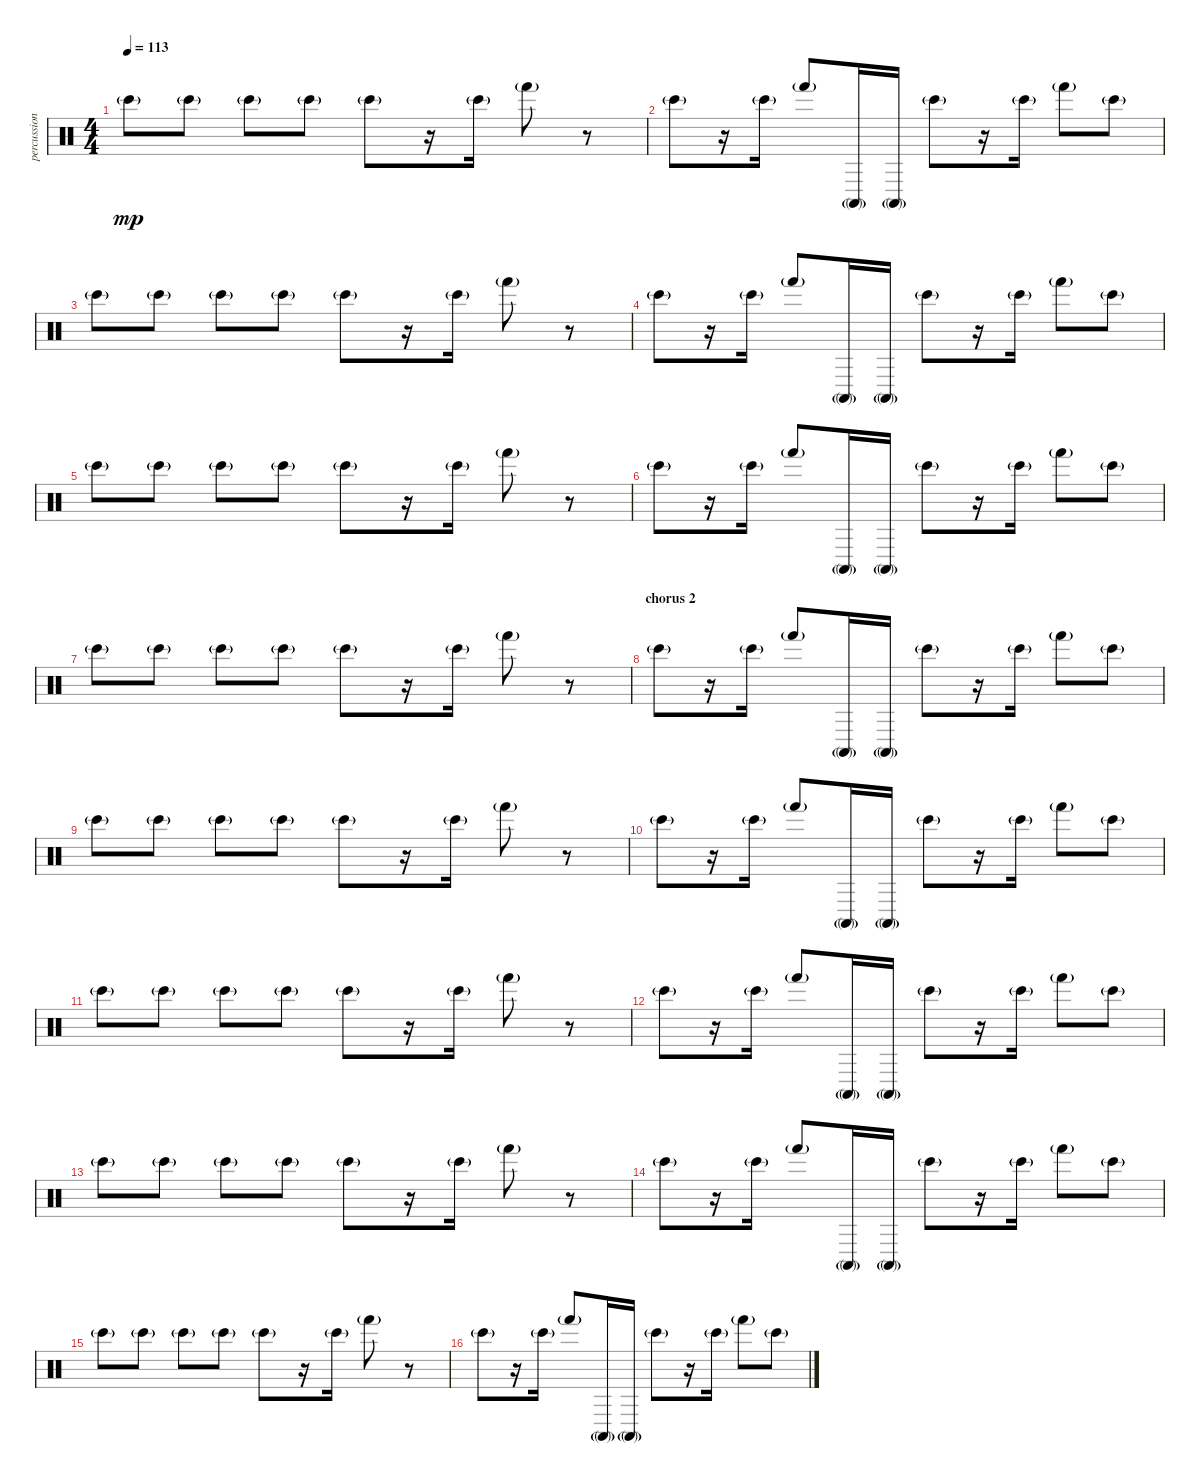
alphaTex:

\track ("percussion" "percussion") {instrument percussion}
\staff {score}
\articulation defaults
\ts (4 4)
\tempo 113
\clef neutral
\ks c "Bongo High (hit)"{g}.8{dy mp} "Bongo High (hit)"{g}.8 "Bongo High (hit)"{g}.8 "Bongo High (hit)"{g}.8 "Bongo High (hit)"{g}.8
r.16 "Bongo High (hit)"{g}.16 "Hand (hit)"{g}.8 r.8 |
"Bongo High (hit)"{g}.8 r.16 "Bongo High (hit)"{g}.16 "Hand (hit)"{g}.8 "Conga high (mute)"{g}.16 "Conga high (mute)"{g}.16 "Bongo High (hit)"{g}.8 r.16 "Bongo High (hit)"{g}.16 "Hand (hit)"{g}.8 "Bongo High (hit)"{g}.8 |
"Bongo High (hit)"{g}.8 "Bongo High (hit)"{g}.8 "Bongo High (hit)"{g}.8 "Bongo High (hit)"{g}.8 "Bongo High (hit)"{g}.8 r.16 "Bongo High (hit)"{g}.16 "Hand (hit)"{g}.8 r.8 |
"Bongo High (hit)"{g}.8 r.16 "Bongo High (hit)"{g}.16 "Hand (hit)"{g}.8 "Conga high (mute)"{g}.16 "Conga high (mute)"{g}.16 "Bongo High (hit)"{g}.8 r.16 "Bongo High (hit)"{g}.16 "Hand (hit)"{g}.8 "Bongo High (hit)"{g}.8 |
"Bongo High (hit)"{g}.8 "Bongo High (hit)"{g}.8 "Bongo High (hit)"{g}.8 "Bongo High (hit)"{g}.8 "Bongo High (hit)"{g}.8 r.16 "Bongo High (hit)"{g}.16 "Hand (hit)"{g}.8 r.8 |
"Bongo High (hit)"{g}.8 r.16 "Bongo High (hit)"{g}.16 "Hand (hit)"{g}.8 "Conga high (mute)"{g}.16 "Conga high (mute)"{g}.16 "Bongo High (hit)"{g}.8 r.16 "Bongo High (hit)"{g}.16 "Hand (hit)"{g}.8 "Bongo High (hit)"{g}.8 |
"Bongo High (hit)"{g}.8 "Bongo High (hit)"{g}.8 "Bongo High (hit)"{g}.8 "Bongo High (hit)"{g}.8 "Bongo High (hit)"{g}.8 r.16 "Bongo High (hit)"{g}.16 "Hand (hit)"{g}.8 r.8 |
\section ("" "chorus 2")
"Bongo High (hit)"{g}.8 r.16 "Bongo High (hit)"{g}.16 "Hand (hit)"{g}.8 "Conga high (mute)"{g}.16 "Conga high (mute)"{g}.16 "Bongo High (hit)"{g}.8 r.16 "Bongo High (hit)"{g}.16 "Hand (hit)"{g}.8 "Bongo High (hit)"{g}.8 |
"Bongo High (hit)"{g}.8 "Bongo High (hit)"{g}.8 "Bongo High (hit)"{g}.8 "Bongo High (hit)"{g}.8 "Bongo High (hit)"{g}.8 r.16 "Bongo High (hit)"{g}.16 "Hand (hit)"{g}.8 r.8 |
"Bongo High (hit)"{g}.8 r.16 "Bongo High (hit)"{g}.16 "Hand (hit)"{g}.8 "Conga high (mute)"{g}.16 "Conga high (mute)"{g}.16 "Bongo High (hit)"{g}.8 r.16 "Bongo High (hit)"{g}.16 "Hand (hit)"{g}.8 "Bongo High (hit)"{g}.8 |
"Bongo High (hit)"{g}.8 "Bongo High (hit)"{g}.8 "Bongo High (hit)"{g}.8 "Bongo High (hit)"{g}.8 "Bongo High (hit)"{g}.8 r.16 "Bongo High (hit)"{g}.16 "Hand (hit)"{g}.8 r.8 |
"Bongo High (hit)"{g}.8 r.16 "Bongo High (hit)"{g}.16 "Hand (hit)"{g}.8 "Conga high (mute)"{g}.16 "Conga high (mute)"{g}.16 "Bongo High (hit)"{g}.8 r.16 "Bongo High (hit)"{g}.16 "Hand (hit)"{g}.8 "Bongo High (hit)"{g}.8 |
"Bongo High (hit)"{g}.8 "Bongo High (hit)"{g}.8 "Bongo High (hit)"{g}.8 "Bongo High (hit)"{g}.8 "Bongo High (hit)"{g}.8 r.16 "Bongo High (hit)"{g}.16 "Hand (hit)"{g}.8 r.8 |
"Bongo High (hit)"{g}.8 r.16 "Bongo High (hit)"{g}.16 "Hand (hit)"{g}.8 "Conga high (mute)"{g}.16 "Conga high (mute)"{g}.16 "Bongo High (hit)"{g}.8 r.16 "Bongo High (hit)"{g}.16 "Hand (hit)"{g}.8 "Bongo High (hit)"{g}.8 |
"Bongo High (hit)"{g}.8 "Bongo High (hit)"{g}.8 "Bongo High (hit)"{g}.8 "Bongo High (hit)"{g}.8 "Bongo High (hit)"{g}.8 r.16 "Bongo High (hit)"{g}.16 "Hand (hit)"{g}.8 r.8 |
"Bongo High (hit)"{g}.8 r.16 "Bongo High (hit)"{g}.16 "Hand (hit)"{g}.8 "Conga high (mute)"{g}.16 "Conga high (mute)"{g}.16 "Bongo High (hit)"{g}.8 r.16 "Bongo High (hit)"{g}.16 "Hand (hit)"{g}.8 "Bongo High (hit)"{g}.8
